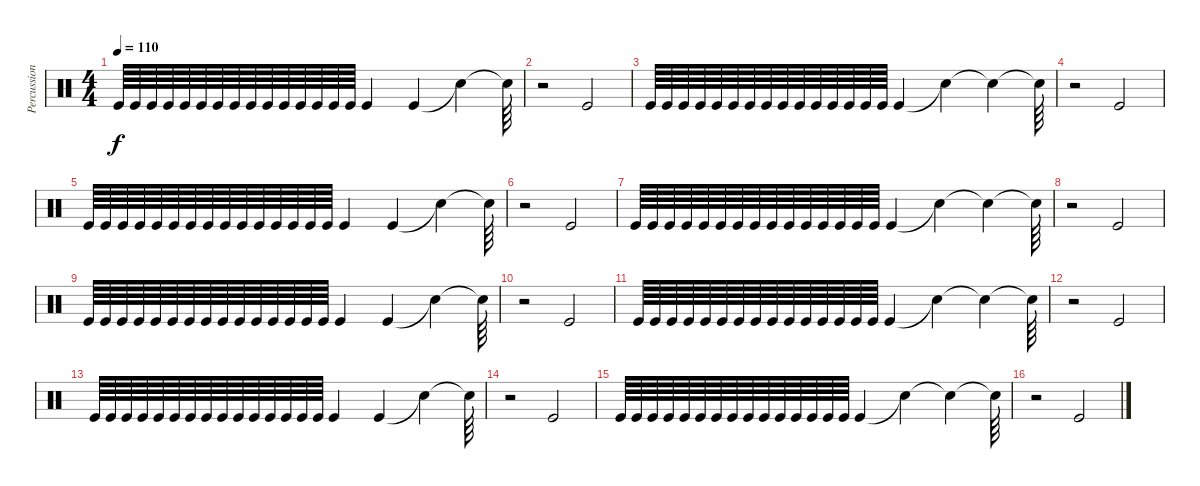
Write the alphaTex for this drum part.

\track ("Percussions" "Percussion") {instrument percussion}
\staff {score}
\articulation defaults
\ts (4 4)
\tempo 110
\clef neutral
\ks c "Kick (hit)".64{dy f volume 0} "Kick (hit)".64 "Kick (hit)".64 "Kick (hit)".64 "Kick (hit)".64{volume 2} "Kick (hit)".64 "Kick (hit)".64 "Kick (hit)".64 "Kick (hit)".64 "Kick (hit)".64{volume 5} "Kick (hit)".64 "Kick (hit)".64 "Kick (hit)".64 "Kick (hit)".64{volume 10} "Kick (hit)".64 "Kick (hit)".4{volume 13} "Kick (hit)".4{volume 13} "Snare (hit)"{t}.4 "Snare (hit)"{t}.64
|
r.2 "Kick (hit)".2 |
"Kick (hit)".64{volume 0} "Kick (hit)".64 "Kick (hit)".64 "Kick (hit)".64 "Kick (hit)".64{volume 2} "Kick (hit)".64 "Kick (hit)".64 "Kick (hit)".64 "Kick (hit)".64 "Kick (hit)".64{volume 5} "Kick (hit)".64 "Kick (hit)".64 "Kick (hit)".64 "Kick (hit)".64{volume 10} "Kick (hit)".64 "Kick (hit)".4{volume 13} "Snare (hit)"{t}.4 "Snare (hit)"{t}.4 "Snare (hit)"{t}.64 |
r.2 "Kick (hit)".2 |
"Kick (hit)".64{volume 0} "Kick (hit)".64 "Kick (hit)".64 "Kick (hit)".64 "Kick (hit)".64{volume 2} "Kick (hit)".64 "Kick (hit)".64 "Kick (hit)".64 "Kick (hit)".64 "Kick (hit)".64{volume 5} "Kick (hit)".64 "Kick (hit)".64 "Kick (hit)".64 "Kick (hit)".64{volume 10} "Kick (hit)".64 "Kick (hit)".4{volume 13} "Kick (hit)".4{volume 13} "Snare (hit)"{t}.4 "Snare (hit)"{t}.64 |
r.2 "Kick (hit)".2 |
"Kick (hit)".64{volume 0} "Kick (hit)".64 "Kick (hit)".64 "Kick (hit)".64 "Kick (hit)".64{volume 2} "Kick (hit)".64 "Kick (hit)".64 "Kick (hit)".64 "Kick (hit)".64 "Kick (hit)".64{volume 5} "Kick (hit)".64 "Kick (hit)".64 "Kick (hit)".64 "Kick (hit)".64{volume 10} "Kick (hit)".64 "Kick (hit)".4{volume 13} "Snare (hit)"{t}.4 "Snare (hit)"{t}.4 "Snare (hit)"{t}.64 |
r.2 "Kick (hit)".2 |
"Kick (hit)".64{volume 0} "Kick (hit)".64 "Kick (hit)".64 "Kick (hit)".64 "Kick (hit)".64{volume 2} "Kick (hit)".64 "Kick (hit)".64 "Kick (hit)".64 "Kick (hit)".64 "Kick (hit)".64{volume 5} "Kick (hit)".64 "Kick (hit)".64 "Kick (hit)".64 "Kick (hit)".64{volume 10} "Kick (hit)".64 "Kick (hit)".4{volume 13} "Kick (hit)".4{volume 13} "Snare (hit)"{t}.4 "Snare (hit)"{t}.64 |
r.2 "Kick (hit)".2 |
"Kick (hit)".64{volume 0} "Kick (hit)".64 "Kick (hit)".64 "Kick (hit)".64 "Kick (hit)".64{volume 2} "Kick (hit)".64 "Kick (hit)".64 "Kick (hit)".64 "Kick (hit)".64 "Kick (hit)".64{volume 5} "Kick (hit)".64 "Kick (hit)".64 "Kick (hit)".64 "Kick (hit)".64{volume 10} "Kick (hit)".64 "Kick (hit)".4{volume 13} "Snare (hit)"{t}.4 "Snare (hit)"{t}.4 "Snare (hit)"{t}.64 |
r.2 "Kick (hit)".2 |
"Kick (hit)".64{volume 0} "Kick (hit)".64 "Kick (hit)".64 "Kick (hit)".64 "Kick (hit)".64{volume 2} "Kick (hit)".64 "Kick (hit)".64 "Kick (hit)".64 "Kick (hit)".64 "Kick (hit)".64{volume 5} "Kick (hit)".64 "Kick (hit)".64 "Kick (hit)".64 "Kick (hit)".64{volume 10} "Kick (hit)".64 "Kick (hit)".4{volume 13} "Kick (hit)".4{volume 13} "Snare (hit)"{t}.4 "Snare (hit)"{t}.64 |
r.2 "Kick (hit)".2 |
"Kick (hit)".64{volume 0} "Kick (hit)".64 "Kick (hit)".64 "Kick (hit)".64 "Kick (hit)".64{volume 2} "Kick (hit)".64 "Kick (hit)".64 "Kick (hit)".64 "Kick (hit)".64 "Kick (hit)".64{volume 5} "Kick (hit)".64 "Kick (hit)".64 "Kick (hit)".64 "Kick (hit)".64{volume 10} "Kick (hit)".64 "Kick (hit)".4{volume 13} "Snare (hit)"{t}.4 "Snare (hit)"{t}.4 "Snare (hit)"{t}.64 |
r.2 "Kick (hit)".2
